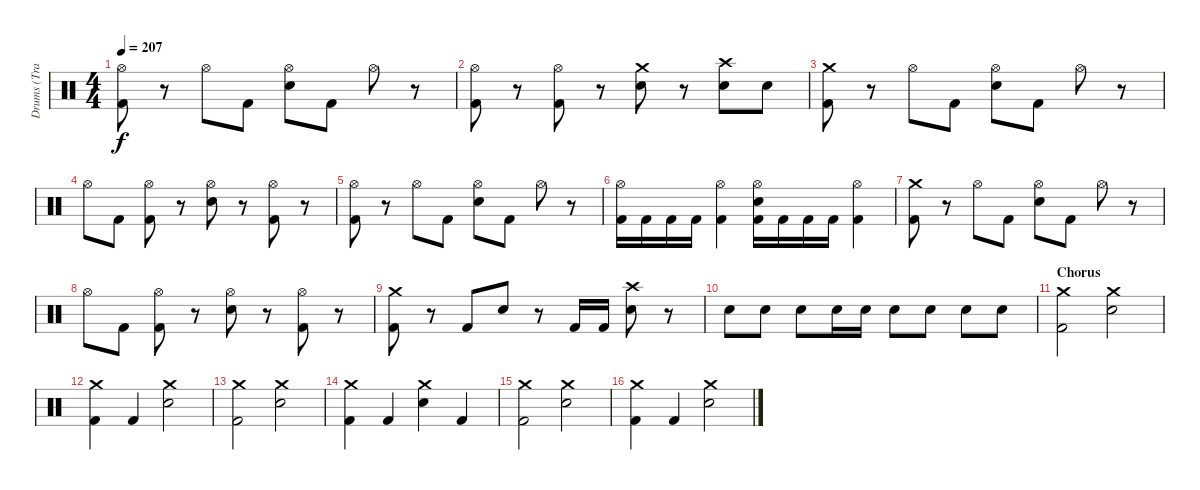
\track ("Drums (Travis)" "Drums (Tra") {instrument percussion}
\staff {score}
\articulation defaults
\ts (4 4)
\tempo 207
\clef neutral
\ks c
("Hi-Hat (open)" "Kick (hit) 2").8{dy f} r.8 "Hi-Hat (open)".8 "Kick (hit) 2".8 ("Hi-Hat (open)" "Snare (hit) 2").8 "Kick (hit) 2".8 "Hi-Hat (open)".8 r.8 |
("Hi-Hat (open)" "Kick (hit) 2").8 r.8 ("Hi-Hat (open)" "Kick (hit) 2").8 r.8 ("Crash medium (hit)" "Snare (hit) 2").8 r.8 ("Crash high (hit)" "Snare (hit) 2").8 "Snare (hit) 2".8 |
("Crash medium (hit)" "Kick (hit) 2").8 r.8 "Hi-Hat (open)".8 "Kick (hit) 2".8 ("Hi-Hat (open)" "Snare (hit) 2").8 "Kick (hit) 2".8 "Hi-Hat (open)".8 r.8 |
"Hi-Hat (open)".8 "Kick (hit) 2".8 ("Hi-Hat (open)" "Kick (hit) 2").8 r.8 ("Hi-Hat (open)" "Snare (hit) 2").8 r.8 ("Hi-Hat (open)" "Kick (hit) 2").8 r.8 |
("Hi-Hat (open)" "Kick (hit) 2").8 r.8 "Hi-Hat (open)".8 "Kick (hit) 2".8 ("Hi-Hat (open)" "Snare (hit) 2").8 "Kick (hit) 2".8 "Hi-Hat (open)".8 r.8 |
("Hi-Hat (open)" "Kick (hit) 2").16 "Kick (hit) 2".16 "Kick (hit) 2".16 "Kick (hit) 2".16 ("Hi-Hat (open)" "Kick (hit) 2").4 ("Hi-Hat (open)" "Snare (hit) 2" "Kick (hit) 2").16 "Kick (hit) 2".16 "Kick (hit) 2".16 "Kick (hit) 2".16 ("Hi-Hat (open)" "Kick (hit) 2").4 |
("Crash medium (hit)" "Kick (hit) 2").8 r.8 "Hi-Hat (open)".8 "Kick (hit) 2".8 ("Hi-Hat (open)" "Snare (hit) 2").8 "Kick (hit) 2".8 "Hi-Hat (open)".8 r.8 |
"Hi-Hat (open)".8 "Kick (hit) 2".8 ("Hi-Hat (open)" "Kick (hit) 2").8 r.8 ("Hi-Hat (open)" "Snare (hit) 2").8 r.8 ("Hi-Hat (open)" "Kick (hit) 2").8 r.8 |
("Crash medium (hit)" "Kick (hit) 2").8 r.8 "Kick (hit) 2".8 "Snare (hit) 2".8 r.8 "Kick (hit) 2".16 "Kick (hit) 2".16 ("Crash high (hit)" "Snare (hit) 2").8 r.8 |
"Snare (hit) 2".8 "Snare (hit) 2".8 "Snare (hit) 2".8 "Snare (hit) 2".16 "Snare (hit) 2".16 "Snare (hit) 2".8 "Snare (hit) 2".8 "Snare (hit) 2".8 "Snare (hit) 2".8 |
\section ("" "Chorus")
("Crash medium (hit)" "Kick (hit) 2").2 ("Crash medium (hit)" "Snare (hit) 2").2 |
("Crash medium (hit)" "Kick (hit) 2").4 "Kick (hit) 2".4 ("Crash medium (hit)" "Snare (hit) 2").2 |
("Crash medium (hit)" "Kick (hit) 2").2 ("Crash medium (hit)" "Snare (hit) 2").2 |
("Crash medium (hit)" "Kick (hit) 2").4 "Kick (hit) 2".4 ("Crash medium (hit)" "Snare (hit) 2").4 "Kick (hit) 2".4 |
("Crash medium (hit)" "Kick (hit) 2").2 ("Crash medium (hit)" "Snare (hit) 2").2 |
("Crash medium (hit)" "Kick (hit) 2").4 "Kick (hit) 2".4 ("Crash medium (hit)" "Snare (hit) 2").2
